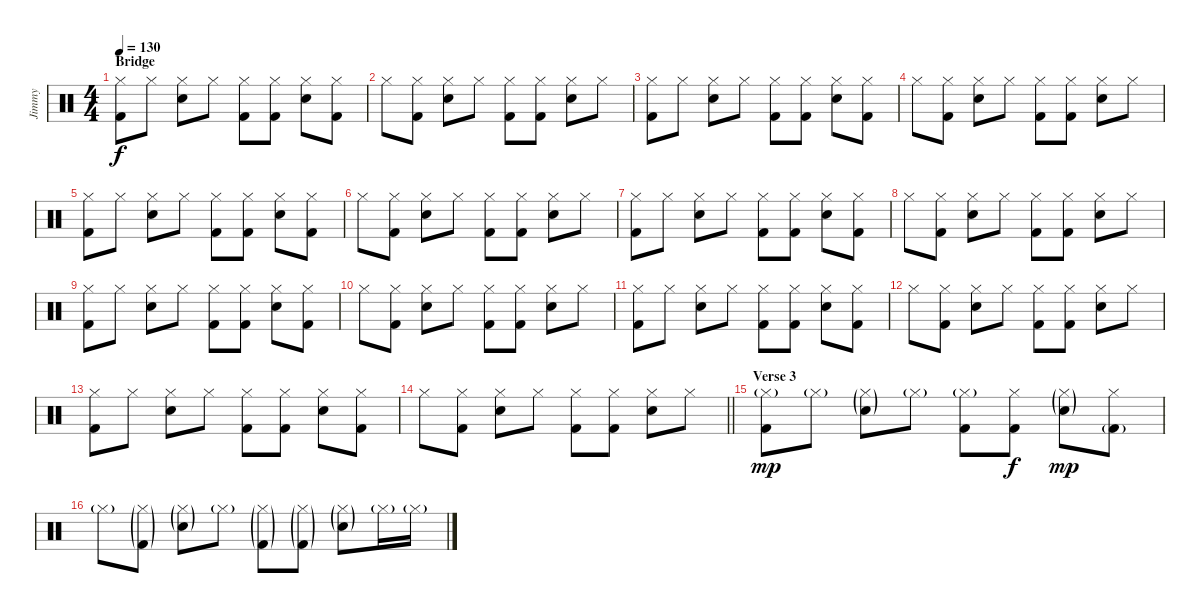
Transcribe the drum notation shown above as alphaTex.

\track ("Jimmy" "Jimmy") {instrument percussion}
\staff {score}
\articulation defaults
\ts (4 4)
\section ("" "Bridge")
\tempo 130
\clef neutral
\ks c
("Hi-Hat (closed)" "Kick (hit) 2").8{dy f} "Hi-Hat (closed)".8 ("Hi-Hat (closed)" "Electric Snare (hit)").8 "Hi-Hat (closed)".8 ("Hi-Hat (closed)" "Kick (hit) 2").8 ("Hi-Hat (closed)" "Kick (hit) 2").8 ("Hi-Hat (closed)" "Electric Snare (hit)").8 ("Hi-Hat (closed)" "Kick (hit) 2").8 |
"Hi-Hat (closed)".8 ("Hi-Hat (closed)" "Kick (hit) 2").8 ("Hi-Hat (closed)" "Electric Snare (hit)").8 "Hi-Hat (closed)".8 ("Hi-Hat (closed)" "Kick (hit) 2").8 ("Hi-Hat (closed)" "Kick (hit) 2").8 ("Hi-Hat (closed)" "Electric Snare (hit)").8 "Hi-Hat (closed)".8 |
("Hi-Hat (closed)" "Kick (hit) 2").8 "Hi-Hat (closed)".8 ("Hi-Hat (closed)" "Electric Snare (hit)").8 "Hi-Hat (closed)".8 ("Hi-Hat (closed)" "Kick (hit) 2").8 ("Hi-Hat (closed)" "Kick (hit) 2").8 ("Hi-Hat (closed)" "Electric Snare (hit)").8 ("Hi-Hat (closed)" "Kick (hit) 2").8 |
"Hi-Hat (closed)".8 ("Hi-Hat (closed)" "Kick (hit) 2").8 ("Hi-Hat (closed)" "Electric Snare (hit)").8 "Hi-Hat (closed)".8 ("Hi-Hat (closed)" "Kick (hit) 2").8 ("Hi-Hat (closed)" "Kick (hit) 2").8 ("Hi-Hat (closed)" "Electric Snare (hit)").8 "Hi-Hat (closed)".8 |
("Hi-Hat (closed)" "Kick (hit) 2").8 "Hi-Hat (closed)".8 ("Hi-Hat (closed)" "Electric Snare (hit)").8 "Hi-Hat (closed)".8 ("Hi-Hat (closed)" "Kick (hit) 2").8 ("Hi-Hat (closed)" "Kick (hit) 2").8 ("Hi-Hat (closed)" "Electric Snare (hit)").8 ("Hi-Hat (closed)" "Kick (hit) 2").8 |
"Hi-Hat (closed)".8 ("Hi-Hat (closed)" "Kick (hit) 2").8 ("Hi-Hat (closed)" "Electric Snare (hit)").8 "Hi-Hat (closed)".8 ("Hi-Hat (closed)" "Kick (hit) 2").8 ("Hi-Hat (closed)" "Kick (hit) 2").8 ("Hi-Hat (closed)" "Electric Snare (hit)").8 "Hi-Hat (closed)".8 |
("Hi-Hat (closed)" "Kick (hit) 2").8 "Hi-Hat (closed)".8 ("Hi-Hat (closed)" "Electric Snare (hit)").8 "Hi-Hat (closed)".8 ("Hi-Hat (closed)" "Kick (hit) 2").8 ("Hi-Hat (closed)" "Kick (hit) 2").8 ("Hi-Hat (closed)" "Electric Snare (hit)").8 ("Hi-Hat (closed)" "Kick (hit) 2").8 |
"Hi-Hat (closed)".8 ("Hi-Hat (closed)" "Kick (hit) 2").8 ("Hi-Hat (closed)" "Electric Snare (hit)").8 "Hi-Hat (closed)".8 ("Hi-Hat (closed)" "Kick (hit) 2").8 ("Hi-Hat (closed)" "Kick (hit) 2").8 ("Hi-Hat (closed)" "Electric Snare (hit)").8 "Hi-Hat (closed)".8 |
("Hi-Hat (closed)" "Kick (hit) 2").8 "Hi-Hat (closed)".8 ("Hi-Hat (closed)" "Electric Snare (hit)").8 "Hi-Hat (closed)".8 ("Hi-Hat (closed)" "Kick (hit) 2").8 ("Hi-Hat (closed)" "Kick (hit) 2").8 ("Hi-Hat (closed)" "Electric Snare (hit)").8 ("Hi-Hat (closed)" "Kick (hit) 2").8 |
"Hi-Hat (closed)".8 ("Hi-Hat (closed)" "Kick (hit) 2").8 ("Hi-Hat (closed)" "Electric Snare (hit)").8 "Hi-Hat (closed)".8 ("Hi-Hat (closed)" "Kick (hit) 2").8 ("Hi-Hat (closed)" "Kick (hit) 2").8 ("Hi-Hat (closed)" "Electric Snare (hit)").8 "Hi-Hat (closed)".8 |
("Hi-Hat (closed)" "Kick (hit) 2").8 "Hi-Hat (closed)".8 ("Hi-Hat (closed)" "Electric Snare (hit)").8 "Hi-Hat (closed)".8 ("Hi-Hat (closed)" "Kick (hit) 2").8 ("Hi-Hat (closed)" "Kick (hit) 2").8 ("Hi-Hat (closed)" "Electric Snare (hit)").8 ("Hi-Hat (closed)" "Kick (hit) 2").8 |
"Hi-Hat (closed)".8 ("Hi-Hat (closed)" "Kick (hit) 2").8 ("Hi-Hat (closed)" "Electric Snare (hit)").8 "Hi-Hat (closed)".8 ("Hi-Hat (closed)" "Kick (hit) 2").8 ("Hi-Hat (closed)" "Kick (hit) 2").8 ("Hi-Hat (closed)" "Electric Snare (hit)").8 "Hi-Hat (closed)".8 |
("Hi-Hat (closed)" "Kick (hit) 2").8 "Hi-Hat (closed)".8 ("Hi-Hat (closed)" "Electric Snare (hit)").8 "Hi-Hat (closed)".8 ("Hi-Hat (closed)" "Kick (hit) 2").8 ("Hi-Hat (closed)" "Kick (hit) 2").8 ("Hi-Hat (closed)" "Electric Snare (hit)").8 ("Hi-Hat (closed)" "Kick (hit) 2").8 |
\barLineRight lightlight "Hi-Hat (closed)".8
("Hi-Hat (closed)" "Kick (hit) 2").8 ("Hi-Hat (closed)" "Electric Snare (hit)").8 "Hi-Hat (closed)".8 ("Hi-Hat (closed)" "Kick (hit) 2").8 ("Hi-Hat (closed)" "Kick (hit) 2").8 ("Hi-Hat (closed)" "Electric Snare (hit)").8 "Hi-Hat (closed)".8 |
\section ("" "Verse 3")
("Hi-Hat (closed)"{g} "Kick (hit) 2").8{dy mp} "Hi-Hat (closed)"{g}.8 ("Hi-Hat (closed)"{g} "Electric Snare (hit)"{g}).8 "Hi-Hat (closed)"{g}.8 ("Hi-Hat (closed)"{g} "Kick (hit) 2").8 ("Hi-Hat (closed)" "Kick (hit) 2").8{dy f} ("Hi-Hat (closed)"{g} "Electric Snare (hit)"{g}).8{dy mp} ("Hi-Hat (closed)" "Kick (hit) 2"{g}).8 |
"Hi-Hat (closed)"{g}.8 ("Hi-Hat (closed)"{g} "Kick (hit) 2"{g}).8 ("Hi-Hat (closed)"{g} "Electric Snare (hit)"{g}).8 "Hi-Hat (closed)"{g}.8 ("Hi-Hat (closed)"{g} "Kick (hit) 2"{g}).8 ("Hi-Hat (closed)"{g} "Kick (hit) 2"{g}).8 ("Hi-Hat (closed)"{g} "Electric Snare (hit)"{g}).8 "Hi-Hat (closed)"{g}.16 "Hi-Hat (closed)"{g}.16
